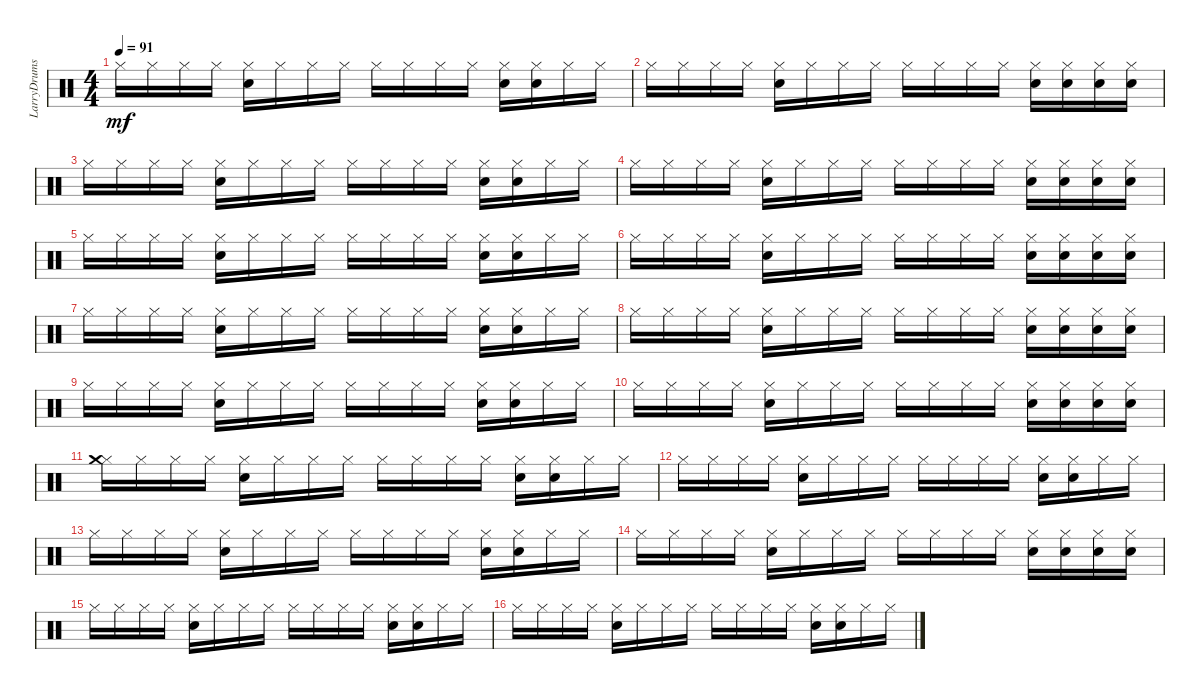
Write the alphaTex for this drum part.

\track ("LarryDrums2" "LarryDrums") {instrument percussion}
\staff {score}
\articulation defaults
\ts (4 4)
\tempo 91
\clef neutral
\ks c "Hi-Hat (closed)".16{dy mf} "Hi-Hat (closed)".16 "Hi-Hat (closed)".16 "Hi-Hat (closed)".16
("Hi-Hat (closed)" "Electric Snare (hit)").16 "Hi-Hat (closed)".16 "Hi-Hat (closed)".16 "Hi-Hat (closed)".16 "Hi-Hat (closed)".16 "Hi-Hat (closed)".16 "Hi-Hat (closed)".16 "Hi-Hat (closed)".16 ("Hi-Hat (closed)" "Electric Snare (hit)").16 ("Hi-Hat (closed)" "Electric Snare (hit)").16 "Hi-Hat (closed)".16 "Hi-Hat (closed)".16 |
"Hi-Hat (closed)".16 "Hi-Hat (closed)".16 "Hi-Hat (closed)".16 "Hi-Hat (closed)".16 ("Hi-Hat (closed)" "Electric Snare (hit)").16 "Hi-Hat (closed)".16 "Hi-Hat (closed)".16 "Hi-Hat (closed)".16 "Hi-Hat (closed)".16 "Hi-Hat (closed)".16 "Hi-Hat (closed)".16 "Hi-Hat (closed)".16 ("Hi-Hat (closed)" "Electric Snare (hit)").16 ("Hi-Hat (closed)" "Electric Snare (hit)").16 ("Hi-Hat (closed)" "Electric Snare (hit)").16 ("Hi-Hat (closed)" "Electric Snare (hit)").16 |
"Hi-Hat (closed)".16 "Hi-Hat (closed)".16 "Hi-Hat (closed)".16 "Hi-Hat (closed)".16 ("Hi-Hat (closed)" "Electric Snare (hit)").16 "Hi-Hat (closed)".16 "Hi-Hat (closed)".16 "Hi-Hat (closed)".16 "Hi-Hat (closed)".16 "Hi-Hat (closed)".16 "Hi-Hat (closed)".16 "Hi-Hat (closed)".16 ("Hi-Hat (closed)" "Electric Snare (hit)").16 ("Hi-Hat (closed)" "Electric Snare (hit)").16 "Hi-Hat (closed)".16 "Hi-Hat (closed)".16 |
"Hi-Hat (closed)".16 "Hi-Hat (closed)".16 "Hi-Hat (closed)".16 "Hi-Hat (closed)".16 ("Hi-Hat (closed)" "Electric Snare (hit)").16 "Hi-Hat (closed)".16 "Hi-Hat (closed)".16 "Hi-Hat (closed)".16 "Hi-Hat (closed)".16 "Hi-Hat (closed)".16 "Hi-Hat (closed)".16 "Hi-Hat (closed)".16 ("Hi-Hat (closed)" "Electric Snare (hit)").16 ("Hi-Hat (closed)" "Electric Snare (hit)").16 ("Hi-Hat (closed)" "Electric Snare (hit)").16 ("Hi-Hat (closed)" "Electric Snare (hit)").16 |
"Hi-Hat (closed)".16 "Hi-Hat (closed)".16 "Hi-Hat (closed)".16 "Hi-Hat (closed)".16 ("Hi-Hat (closed)" "Electric Snare (hit)").16 "Hi-Hat (closed)".16 "Hi-Hat (closed)".16 "Hi-Hat (closed)".16 "Hi-Hat (closed)".16 "Hi-Hat (closed)".16 "Hi-Hat (closed)".16 "Hi-Hat (closed)".16 ("Hi-Hat (closed)" "Electric Snare (hit)").16 ("Hi-Hat (closed)" "Electric Snare (hit)").16 "Hi-Hat (closed)".16 "Hi-Hat (closed)".16 |
"Hi-Hat (closed)".16 "Hi-Hat (closed)".16 "Hi-Hat (closed)".16 "Hi-Hat (closed)".16 ("Hi-Hat (closed)" "Electric Snare (hit)").16 "Hi-Hat (closed)".16 "Hi-Hat (closed)".16 "Hi-Hat (closed)".16 "Hi-Hat (closed)".16 "Hi-Hat (closed)".16 "Hi-Hat (closed)".16 "Hi-Hat (closed)".16 ("Hi-Hat (closed)" "Electric Snare (hit)").16 ("Hi-Hat (closed)" "Electric Snare (hit)").16 ("Hi-Hat (closed)" "Electric Snare (hit)").16 ("Hi-Hat (closed)" "Electric Snare (hit)").16 |
"Hi-Hat (closed)".16 "Hi-Hat (closed)".16 "Hi-Hat (closed)".16 "Hi-Hat (closed)".16 ("Hi-Hat (closed)" "Electric Snare (hit)").16 "Hi-Hat (closed)".16 "Hi-Hat (closed)".16 "Hi-Hat (closed)".16 "Hi-Hat (closed)".16 "Hi-Hat (closed)".16 "Hi-Hat (closed)".16 "Hi-Hat (closed)".16 ("Hi-Hat (closed)" "Electric Snare (hit)").16 ("Hi-Hat (closed)" "Electric Snare (hit)").16 "Hi-Hat (closed)".16 "Hi-Hat (closed)".16 |
"Hi-Hat (closed)".16 "Hi-Hat (closed)".16 "Hi-Hat (closed)".16 "Hi-Hat (closed)".16 ("Hi-Hat (closed)" "Electric Snare (hit)").16 "Hi-Hat (closed)".16 "Hi-Hat (closed)".16 "Hi-Hat (closed)".16 "Hi-Hat (closed)".16 "Hi-Hat (closed)".16 "Hi-Hat (closed)".16 "Hi-Hat (closed)".16 ("Hi-Hat (closed)" "Electric Snare (hit)").16 ("Hi-Hat (closed)" "Electric Snare (hit)").16 ("Hi-Hat (closed)" "Electric Snare (hit)").16 ("Hi-Hat (closed)" "Electric Snare (hit)").16 |
"Hi-Hat (closed)".16 "Hi-Hat (closed)".16 "Hi-Hat (closed)".16 "Hi-Hat (closed)".16 ("Hi-Hat (closed)" "Electric Snare (hit)").16 "Hi-Hat (closed)".16 "Hi-Hat (closed)".16 "Hi-Hat (closed)".16 "Hi-Hat (closed)".16 "Hi-Hat (closed)".16 "Hi-Hat (closed)".16 "Hi-Hat (closed)".16 ("Hi-Hat (closed)" "Electric Snare (hit)").16 ("Hi-Hat (closed)" "Electric Snare (hit)").16 "Hi-Hat (closed)".16 "Hi-Hat (closed)".16 |
"Hi-Hat (closed)".16 "Hi-Hat (closed)".16 "Hi-Hat (closed)".16 "Hi-Hat (closed)".16 ("Hi-Hat (closed)" "Electric Snare (hit)").16 "Hi-Hat (closed)".16 "Hi-Hat (closed)".16 "Hi-Hat (closed)".16 "Hi-Hat (closed)".16 "Hi-Hat (closed)".16 "Hi-Hat (closed)".16 "Hi-Hat (closed)".16 ("Hi-Hat (closed)" "Electric Snare (hit)").16 ("Hi-Hat (closed)" "Electric Snare (hit)").16 ("Hi-Hat (closed)" "Electric Snare (hit)").16 ("Hi-Hat (closed)" "Electric Snare (hit)").16 |
("Hi-Hat (closed)" "Crash medium (hit)").16 "Hi-Hat (closed)".16 "Hi-Hat (closed)".16 "Hi-Hat (closed)".16 ("Hi-Hat (closed)" "Electric Snare (hit)").16 "Hi-Hat (closed)".16 "Hi-Hat (closed)".16 "Hi-Hat (closed)".16 "Hi-Hat (closed)".16 "Hi-Hat (closed)".16 "Hi-Hat (closed)".16 "Hi-Hat (closed)".16 ("Hi-Hat (closed)" "Electric Snare (hit)").16 ("Hi-Hat (closed)" "Electric Snare (hit)").16 "Hi-Hat (closed)".16 "Hi-Hat (closed)".16 |
"Hi-Hat (closed)".16 "Hi-Hat (closed)".16 "Hi-Hat (closed)".16 "Hi-Hat (closed)".16 ("Hi-Hat (closed)" "Electric Snare (hit)").16 "Hi-Hat (closed)".16 "Hi-Hat (closed)".16 "Hi-Hat (closed)".16 "Hi-Hat (closed)".16 "Hi-Hat (closed)".16 "Hi-Hat (closed)".16 "Hi-Hat (closed)".16 ("Hi-Hat (closed)" "Electric Snare (hit)").16 ("Hi-Hat (closed)" "Electric Snare (hit)").16 "Hi-Hat (closed)".16 "Hi-Hat (closed)".16 |
"Hi-Hat (closed)".16 "Hi-Hat (closed)".16 "Hi-Hat (closed)".16 "Hi-Hat (closed)".16 ("Hi-Hat (closed)" "Electric Snare (hit)").16 "Hi-Hat (closed)".16 "Hi-Hat (closed)".16 "Hi-Hat (closed)".16 "Hi-Hat (closed)".16 "Hi-Hat (closed)".16 "Hi-Hat (closed)".16 "Hi-Hat (closed)".16 ("Hi-Hat (closed)" "Electric Snare (hit)").16 ("Hi-Hat (closed)" "Electric Snare (hit)").16 "Hi-Hat (closed)".16 "Hi-Hat (closed)".16 |
"Hi-Hat (closed)".16 "Hi-Hat (closed)".16 "Hi-Hat (closed)".16 "Hi-Hat (closed)".16 ("Hi-Hat (closed)" "Electric Snare (hit)").16 "Hi-Hat (closed)".16 "Hi-Hat (closed)".16 "Hi-Hat (closed)".16 "Hi-Hat (closed)".16 "Hi-Hat (closed)".16 "Hi-Hat (closed)".16 "Hi-Hat (closed)".16 ("Hi-Hat (closed)" "Electric Snare (hit)").16 ("Hi-Hat (closed)" "Electric Snare (hit)").16 ("Hi-Hat (closed)" "Electric Snare (hit)").16 ("Hi-Hat (closed)" "Electric Snare (hit)").16 |
"Hi-Hat (closed)".16 "Hi-Hat (closed)".16 "Hi-Hat (closed)".16 "Hi-Hat (closed)".16 ("Hi-Hat (closed)" "Electric Snare (hit)").16 "Hi-Hat (closed)".16 "Hi-Hat (closed)".16 "Hi-Hat (closed)".16 "Hi-Hat (closed)".16 "Hi-Hat (closed)".16 "Hi-Hat (closed)".16 "Hi-Hat (closed)".16 ("Hi-Hat (closed)" "Electric Snare (hit)").16 ("Hi-Hat (closed)" "Electric Snare (hit)").16 "Hi-Hat (closed)".16 "Hi-Hat (closed)".16 |
"Hi-Hat (closed)".16 "Hi-Hat (closed)".16 "Hi-Hat (closed)".16 "Hi-Hat (closed)".16 ("Hi-Hat (closed)" "Electric Snare (hit)").16 "Hi-Hat (closed)".16 "Hi-Hat (closed)".16 "Hi-Hat (closed)".16 "Hi-Hat (closed)".16 "Hi-Hat (closed)".16 "Hi-Hat (closed)".16 "Hi-Hat (closed)".16 ("Hi-Hat (closed)" "Electric Snare (hit)").16 ("Hi-Hat (closed)" "Electric Snare (hit)").16 "Hi-Hat (closed)".16 "Hi-Hat (closed)".16
